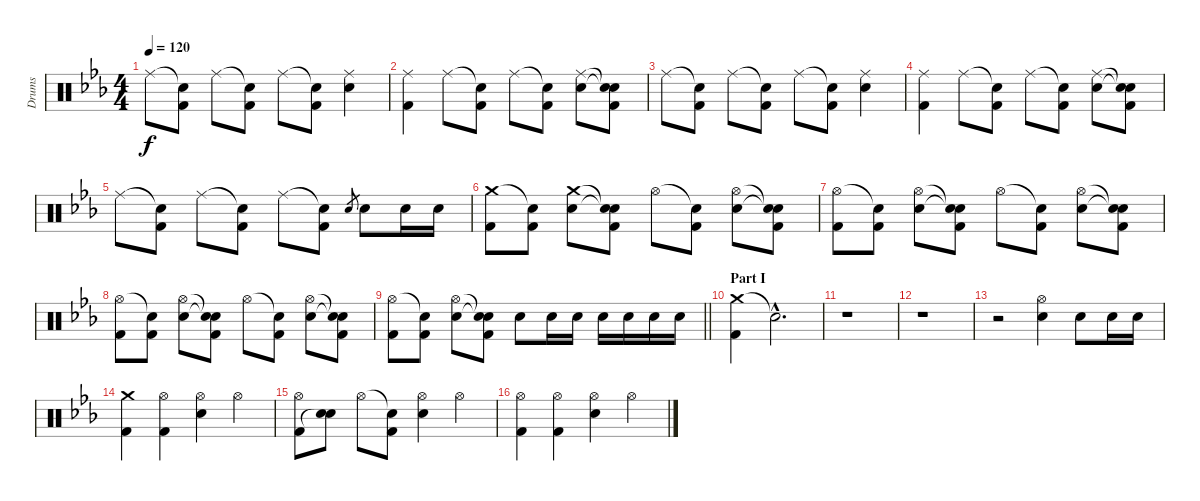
\track ("Drums" "Drums") {instrument percussion}
\staff {score}
\articulation defaults
\ts (4 4)
\tempo 120
\clef neutral
\ks eb "Ride (middle)".8{dy f}
("Snare (hit)"{t} "Kick (hit) 2").8 "Ride (middle)".8 ("Snare (hit)"{t} "Kick (hit) 2").8 "Ride (middle)".8 ("Snare (hit)"{t} "Kick (hit) 2").8 ("Ride (middle)" "Electric Snare (hit)").4 |
("Ride (middle)" "Kick (hit) 2").4 "Ride (middle)".8 ("Snare (hit)"{t} "Kick (hit) 2").8 "Ride (middle)".8 ("Snare (hit)"{t} "Kick (hit) 2").8 ("Ride (middle)" "Electric Snare (hit)").8 ("Snare (hit)"{t} "Snare (hit)"{t} "Kick (hit) 2").8 |
"Ride (middle)".8 ("Snare (hit)"{t} "Kick (hit) 2").8 "Ride (middle)".8 ("Snare (hit)"{t} "Kick (hit) 2").8 "Ride (middle)".8 ("Snare (hit)"{t} "Kick (hit) 2").8 ("Ride (middle)" "Electric Snare (hit)").4 |
("Ride (middle)" "Kick (hit) 2").4 "Ride (middle)".8 ("Snare (hit)"{t} "Kick (hit) 2").8 "Ride (middle)".8 ("Snare (hit)"{t} "Kick (hit) 2").8 ("Ride (middle)" "Electric Snare (hit)").8 ("Snare (hit)"{t} "Snare (hit)"{t} "Kick (hit) 2").8 |
"Ride (middle)".8 ("Snare (hit)"{t} "Kick (hit) 2").8 "Ride (middle)".8 ("Snare (hit)"{t} "Kick (hit) 2").8 "Ride (middle)".8 ("Snare (hit)"{t} "Kick (hit) 2").8 "Electric Snare (hit)".8{gr} "Electric Snare (hit)".8 "Electric Snare (hit)".16 "Electric Snare (hit)".16 |
("Crash medium (hit)" "Kick (hit) 2").8 ("Snare (hit)"{t} "Kick (hit) 2").8 ("Crash medium (hit)" "Electric Snare (hit)").8 ("Snare (hit)"{t} "Snare (hit)"{t} "Kick (hit) 2").8 "Hi-Hat (open)".8 ("Snare (hit)"{t} "Kick (hit) 2").8 ("Hi-Hat (open)" "Electric Snare (hit)").8 ("Snare (hit)"{t} "Snare (hit)"{t} "Kick (hit) 2").8 |
("Hi-Hat (open)" "Kick (hit) 2").8 ("Snare (hit)"{t} "Kick (hit) 2").8 ("Hi-Hat (open)" "Electric Snare (hit)").8 ("Snare (hit)"{t} "Snare (hit)"{t} "Kick (hit) 2").8 "Hi-Hat (open)".8 ("Snare (hit)"{t} "Kick (hit) 2").8 ("Hi-Hat (open)" "Electric Snare (hit)").8 ("Snare (hit)"{t} "Snare (hit)"{t} "Kick (hit) 2").8 |
("Hi-Hat (open)" "Kick (hit) 2").8 ("Snare (hit)"{t} "Kick (hit) 2").8 ("Hi-Hat (open)" "Electric Snare (hit)").8 ("Snare (hit)"{t} "Snare (hit)"{t} "Kick (hit) 2").8 "Hi-Hat (open)".8 ("Snare (hit)"{t} "Kick (hit) 2").8 ("Hi-Hat (open)" "Electric Snare (hit)").8 ("Snare (hit)"{t} "Snare (hit)"{t} "Kick (hit) 2").8 |
\barLineRight lightlight
("Hi-Hat (open)" "Kick (hit) 2").8 ("Snare (hit)"{t} "Kick (hit) 2").8 ("Hi-Hat (open)" "Electric Snare (hit)").8 ("Snare (hit)"{t} "Snare (hit)"{t} "Kick (hit) 2").8 "Electric Snare (hit)".8 "Electric Snare (hit)".16 "Electric Snare (hit)".16 "Electric Snare (hit)".16 "Electric Snare (hit)".16 "Electric Snare (hit)".16 "Electric Snare (hit)".16 |
\section ("" "Part I")
("Crash medium (hit)" "Kick (hit) 2").4 "Snare (hit)"{hac t}.2{d} |
r.1 |
r.1 |
r.2 ("Hi-Hat (open)" "Electric Snare (hit)").4 "Electric Snare (hit)".8 "Electric Snare (hit)".16 "Electric Snare (hit)".16 |
("Crash medium (hit)" "Kick (hit) 2").4 ("Hi-Hat (open)" "Kick (hit) 2").4 ("Hi-Hat (open)" "Electric Snare (hit)").4 "Hi-Hat (open)".4 |
("Hi-Hat (open)" "Kick (hit) 2").8 ("Electric Snare (hit)" "Snare (hit)"{t}).8 "Hi-Hat (open)".8 ("Snare (hit)"{t} "Kick (hit) 2").8 ("Hi-Hat (open)" "Electric Snare (hit)").4 "Hi-Hat (open)".4 |
("Hi-Hat (open)" "Kick (hit) 2").4 ("Hi-Hat (open)" "Kick (hit) 2").4 ("Hi-Hat (open)" "Electric Snare (hit)").4 "Hi-Hat (open)".4
